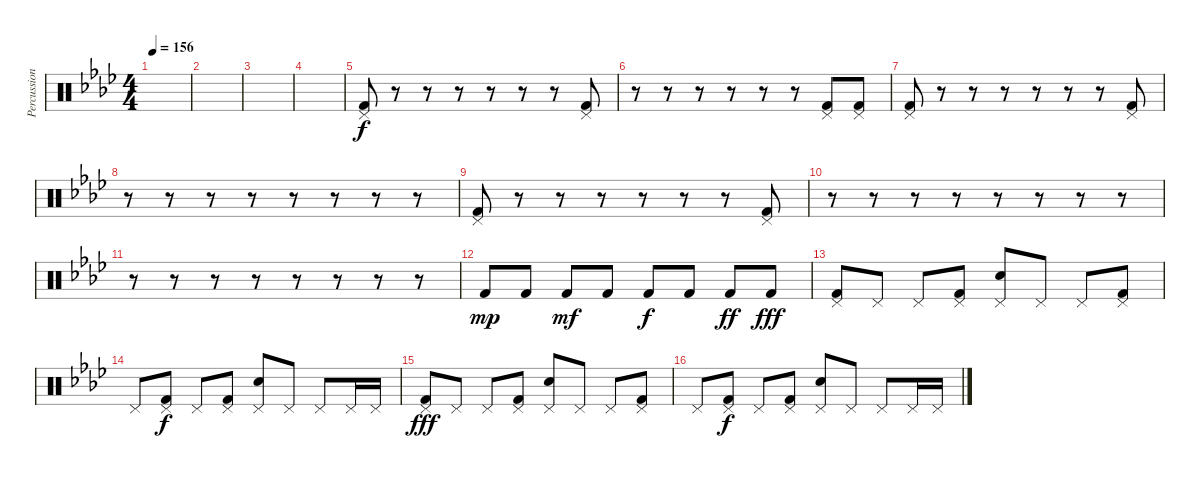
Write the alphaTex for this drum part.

\track ("Percussion" "Percussion") {instrument percussion}
\staff {score}
\articulation defaults
\ts (4 4)
\tempo 156
\clef neutral
\ks ab
|
|
|
|
("Pedal Hi-Hat (hit)" "Kick (hit) 2").8 r.8 r.8 r.8 r.8 r.8 r.8 ("Pedal Hi-Hat (hit)" "Kick (hit) 2").8 |
r.8 r.8 r.8 r.8 r.8 r.8 ("Pedal Hi-Hat (hit)" "Kick (hit) 2").8 ("Pedal Hi-Hat (hit)" "Kick (hit) 2").8 |
("Pedal Hi-Hat (hit)" "Kick (hit) 2").8 r.8 r.8 r.8 r.8 r.8 r.8 ("Pedal Hi-Hat (hit)" "Kick (hit) 2").8 |
r.8 r.8 r.8 r.8 r.8 r.8 r.8 r.8 |
("Pedal Hi-Hat (hit)" "Kick (hit) 2").8 r.8 r.8 r.8 r.8 r.8 r.8 ("Pedal Hi-Hat (hit)" "Kick (hit) 2").8 |
r.8 r.8 r.8 r.8 r.8 r.8 r.8 r.8 |
r.8 r.8 r.8 r.8 r.8 r.8 r.8 r.8 |
"Kick (hit) 2".8{dy mp} "Kick (hit) 2".8 "Kick (hit) 2".8{dy mf} "Kick (hit) 2".8 "Kick (hit) 2".8{dy f} "Kick (hit) 2".8 "Kick (hit) 2".8{dy ff} "Kick (hit) 2".8{dy fff} |
("Pedal Hi-Hat (hit)" "Kick (hit) 2").8 "Pedal Hi-Hat (hit)".8 "Pedal Hi-Hat (hit)".8 ("Pedal Hi-Hat (hit)" "Kick (hit) 2").8 ("Pedal Hi-Hat (hit)" "Electric Snare (hit)").8 "Pedal Hi-Hat (hit)".8 "Pedal Hi-Hat (hit)".8 ("Pedal Hi-Hat (hit)" "Kick (hit) 2").8 |
"Pedal Hi-Hat (hit)".8 ("Pedal Hi-Hat (hit)" "Kick (hit) 2").8{dy f} "Pedal Hi-Hat (hit)".8 ("Pedal Hi-Hat (hit)" "Kick (hit) 2").8 ("Pedal Hi-Hat (hit)" "Electric Snare (hit)").8 "Pedal Hi-Hat (hit)".8 "Pedal Hi-Hat (hit)".8 "Pedal Hi-Hat (hit)".16 "Pedal Hi-Hat (hit)".16 |
("Pedal Hi-Hat (hit)" "Kick (hit) 2").8{dy fff} "Pedal Hi-Hat (hit)".8 "Pedal Hi-Hat (hit)".8 ("Pedal Hi-Hat (hit)" "Kick (hit) 2").8 ("Pedal Hi-Hat (hit)" "Electric Snare (hit)").8 "Pedal Hi-Hat (hit)".8 "Pedal Hi-Hat (hit)".8 ("Pedal Hi-Hat (hit)" "Kick (hit) 2").8 |
"Pedal Hi-Hat (hit)".8 ("Pedal Hi-Hat (hit)" "Kick (hit) 2").8{dy f} "Pedal Hi-Hat (hit)".8 ("Pedal Hi-Hat (hit)" "Kick (hit) 2").8 ("Pedal Hi-Hat (hit)" "Electric Snare (hit)").8 "Pedal Hi-Hat (hit)".8 "Pedal Hi-Hat (hit)".8 "Pedal Hi-Hat (hit)".16 "Pedal Hi-Hat (hit)".16
